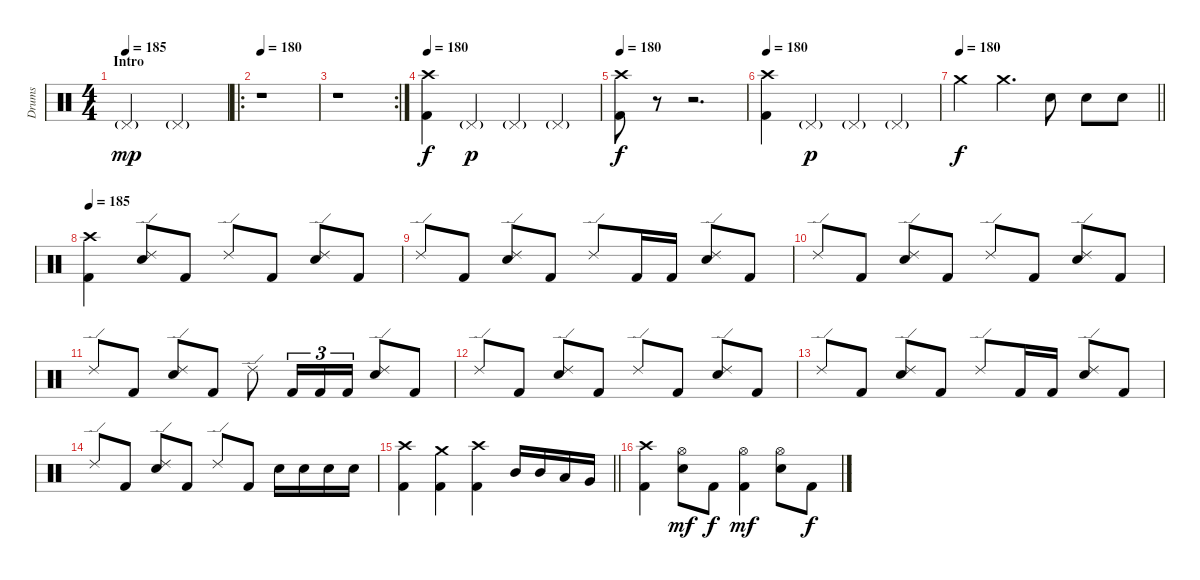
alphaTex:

\track ("Drums" "Drums") {instrument percussion}
\staff {score}
\articulation defaults
\ts (4 4)
\section ("" "Intro")
\tempo 185
\tempo 180
\tempo 185
\clef neutral
\ks c "Pedal Hi-Hat (hit)"{g}.2{dy mp} "Pedal Hi-Hat (hit)"{g}.2
|
\ro
\tempo 180
r.1 |
\rc 2
r.1 |
\tempo 180
("Crash high (hit)" "Kick (hit) 2").4{dy f} "Pedal Hi-Hat (hit)"{g}.4{dy p} "Pedal Hi-Hat (hit)"{g}.4 "Pedal Hi-Hat (hit)"{g}.4 |
\tempo 180
("Crash high (hit)" "Kick (hit) 2").8{dy f} r.8{volume 0} r.2{d} |
\tempo 180
("Crash high (hit)" "Kick (hit) 2").4{volume 13} "Pedal Hi-Hat (hit)"{g}.4{dy p} "Pedal Hi-Hat (hit)"{g}.4 "Pedal Hi-Hat (hit)"{g}.4 |
\tempo 180
\barLineRight lightlight "Crash medium (hit)".4{dy f volume 13} "Crash medium (hit)".4{d} "Electric Snare (hit)".8 "Electric Snare (hit)".8 "Electric Snare (hit)".8
|
\tempo 185
("Crash high (hit)" "Kick (hit) 2").4 ("Ride (edge) 2" "Electric Snare (hit)").8 "Kick (hit) 2".8 "Ride (edge) 2".8 "Kick (hit) 2".8 ("Ride (edge) 2" "Electric Snare (hit)").8 "Kick (hit) 2".8 |
"Ride (edge) 2".8 "Kick (hit) 2".8 ("Ride (edge) 2" "Electric Snare (hit)").8 "Kick (hit) 2".8 "Ride (edge) 2".8 "Kick (hit) 2".16 "Kick (hit) 2".16 ("Ride (edge) 2" "Electric Snare (hit)").8 "Kick (hit) 2".8 |
"Ride (edge) 2".8 "Kick (hit) 2".8 ("Ride (edge) 2" "Electric Snare (hit)").8 "Kick (hit) 2".8 "Ride (edge) 2".8 "Kick (hit) 2".8 ("Ride (edge) 2" "Electric Snare (hit)").8 "Kick (hit) 2".8 |
"Ride (edge) 2".8 "Kick (hit) 2".8 ("Ride (edge) 2" "Electric Snare (hit)").8 "Kick (hit) 2".8 "Ride (edge) 2".8 "Kick (hit) 2".16{tu (3 2)} "Kick (hit) 2".16{tu (3 2)} "Kick (hit) 2".16{tu (3 2)} ("Ride (edge) 2" "Electric Snare (hit)").8 "Kick (hit) 2".8 |
"Ride (edge) 2".8 "Kick (hit) 2".8 ("Ride (edge) 2" "Electric Snare (hit)").8 "Kick (hit) 2".8 "Ride (edge) 2".8 "Kick (hit) 2".8 ("Ride (edge) 2" "Electric Snare (hit)").8 "Kick (hit) 2".8 |
"Ride (edge) 2".8 "Kick (hit) 2".8 ("Ride (edge) 2" "Electric Snare (hit)").8 "Kick (hit) 2".8 "Ride (edge) 2".8 "Kick (hit) 2".16 "Kick (hit) 2".16 ("Ride (edge) 2" "Electric Snare (hit)").8 "Kick (hit) 2".8 |
"Ride (edge) 2".8 "Kick (hit) 2".8 ("Ride (edge) 2" "Electric Snare (hit)").8 "Kick (hit) 2".8 "Ride (edge) 2".8 "Kick (hit) 2".8 "Electric Snare (hit)".16 "Electric Snare (hit)".16 "Electric Snare (hit)".16 "Electric Snare (hit)".16 |
\barLineRight lightlight
("Crash high (hit)" "Kick (hit) 2").4 ("Crash medium (hit)" "Kick (hit) 2").4 ("Crash high (hit)" "Kick (hit) 2").4 "Mid Tom (hit)".16 "Mid Tom (hit)".16 "Low Tom (hit)".16 "Very Low Tom (hit)".16 |
("Crash high (hit)" "Kick (hit) 2").4 ("Hi-Hat (open)" "Electric Snare (hit)").8{dy mf} "Kick (hit) 2".8{dy f} ("Hi-Hat (open)" "Kick (hit) 2").4{dy mf} ("Hi-Hat (open)" "Electric Snare (hit)").8 "Kick (hit) 2".8{dy f}
